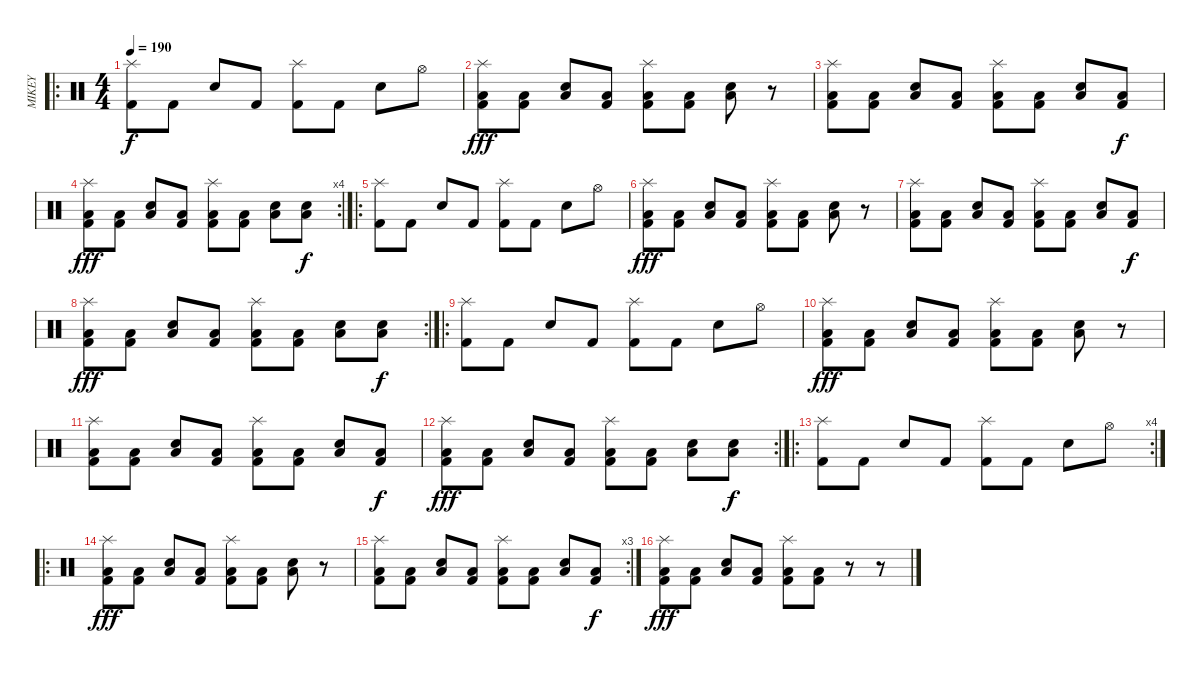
\track ("MIKEY" "MIKEY") {instrument percussion}
\staff {score}
\articulation defaults
\ro
\ts (4 4)
\tempo 190
\clef neutral
\ks c
("Splash (hit)" "Kick (hit) 2").8{dy f} "Kick (hit) 2".8 "Snare (hit) 2".8 "Kick (hit) 2".8 ("Splash (hit)" "Kick (hit) 2").8 "Kick (hit) 2".8 "Snare (hit) 2".8 "Hi-Hat (open)".8 |
("Low Floor Tom (hit)" "Splash (hit)" "Kick (hit) 2").8{dy fff} ("Low Floor Tom (hit)" "Kick (hit) 2").8 ("Low Floor Tom (hit)" "Snare (hit) 2").8 ("Low Floor Tom (hit)" "Kick (hit) 2").8 ("Low Floor Tom (hit)" "Splash (hit)" "Kick (hit) 2").8 ("Low Floor Tom (hit)" "Kick (hit) 2").8 ("Low Floor Tom (hit)" "Snare (hit) 2").8 r.8 |
("Low Floor Tom (hit)" "Splash (hit)" "Kick (hit) 2").8 ("Low Floor Tom (hit)" "Kick (hit) 2").8 ("Low Floor Tom (hit)" "Snare (hit) 2").8 ("Low Floor Tom (hit)" "Kick (hit) 2").8 ("Low Floor Tom (hit)" "Splash (hit)" "Kick (hit) 2").8 ("Low Floor Tom (hit)" "Kick (hit) 2").8 ("Low Floor Tom (hit)" "Snare (hit) 2").8 ("Low Floor Tom (hit)" "Kick (hit) 2").8{dy f} |
\rc 4
("Low Floor Tom (hit)" "Splash (hit)" "Kick (hit) 2").8{dy fff} ("Low Floor Tom (hit)" "Kick (hit) 2").8 ("Low Floor Tom (hit)" "Snare (hit) 2").8 ("Low Floor Tom (hit)" "Kick (hit) 2").8 ("Low Floor Tom (hit)" "Splash (hit)" "Kick (hit) 2").8 ("Low Floor Tom (hit)" "Kick (hit) 2").8 ("Low Floor Tom (hit)" "Snare (hit) 2").8 ("Low Floor Tom (hit)" "Snare (hit) 2").8{dy f} |
\ro
("Splash (hit)" "Kick (hit) 2").8 "Kick (hit) 2".8 "Snare (hit) 2".8 "Kick (hit) 2".8 ("Splash (hit)" "Kick (hit) 2").8 "Kick (hit) 2".8 "Snare (hit) 2".8 "Hi-Hat (open)".8 |
("Low Floor Tom (hit)" "Splash (hit)" "Kick (hit) 2").8{dy fff} ("Low Floor Tom (hit)" "Kick (hit) 2").8 ("Low Floor Tom (hit)" "Snare (hit) 2").8 ("Low Floor Tom (hit)" "Kick (hit) 2").8 ("Low Floor Tom (hit)" "Splash (hit)" "Kick (hit) 2").8 ("Low Floor Tom (hit)" "Kick (hit) 2").8 ("Low Floor Tom (hit)" "Snare (hit) 2").8 r.8 |
("Low Floor Tom (hit)" "Splash (hit)" "Kick (hit) 2").8 ("Low Floor Tom (hit)" "Kick (hit) 2").8 ("Low Floor Tom (hit)" "Snare (hit) 2").8 ("Low Floor Tom (hit)" "Kick (hit) 2").8 ("Low Floor Tom (hit)" "Splash (hit)" "Kick (hit) 2").8 ("Low Floor Tom (hit)" "Kick (hit) 2").8 ("Low Floor Tom (hit)" "Snare (hit) 2").8 ("Low Floor Tom (hit)" "Kick (hit) 2").8{dy f} |
\rc 2
("Low Floor Tom (hit)" "Splash (hit)" "Kick (hit) 2").8{dy fff} ("Low Floor Tom (hit)" "Kick (hit) 2").8 ("Low Floor Tom (hit)" "Snare (hit) 2").8 ("Low Floor Tom (hit)" "Kick (hit) 2").8 ("Low Floor Tom (hit)" "Splash (hit)" "Kick (hit) 2").8 ("Low Floor Tom (hit)" "Kick (hit) 2").8 ("Low Floor Tom (hit)" "Snare (hit) 2").8 ("Low Floor Tom (hit)" "Snare (hit) 2").8{dy f} |
\ro
("Splash (hit)" "Kick (hit) 2").8 "Kick (hit) 2".8 "Snare (hit) 2".8 "Kick (hit) 2".8 ("Splash (hit)" "Kick (hit) 2").8 "Kick (hit) 2".8 "Snare (hit) 2".8 "Hi-Hat (open)".8 |
("Low Floor Tom (hit)" "Splash (hit)" "Kick (hit) 2").8{dy fff} ("Low Floor Tom (hit)" "Kick (hit) 2").8 ("Low Floor Tom (hit)" "Snare (hit) 2").8 ("Low Floor Tom (hit)" "Kick (hit) 2").8 ("Low Floor Tom (hit)" "Splash (hit)" "Kick (hit) 2").8 ("Low Floor Tom (hit)" "Kick (hit) 2").8 ("Low Floor Tom (hit)" "Snare (hit) 2").8 r.8 |
("Low Floor Tom (hit)" "Splash (hit)" "Kick (hit) 2").8 ("Low Floor Tom (hit)" "Kick (hit) 2").8 ("Low Floor Tom (hit)" "Snare (hit) 2").8 ("Low Floor Tom (hit)" "Kick (hit) 2").8 ("Low Floor Tom (hit)" "Splash (hit)" "Kick (hit) 2").8 ("Low Floor Tom (hit)" "Kick (hit) 2").8 ("Low Floor Tom (hit)" "Snare (hit) 2").8 ("Low Floor Tom (hit)" "Kick (hit) 2").8{dy f} |
\rc 2
("Low Floor Tom (hit)" "Splash (hit)" "Kick (hit) 2").8{dy fff} ("Low Floor Tom (hit)" "Kick (hit) 2").8 ("Low Floor Tom (hit)" "Snare (hit) 2").8 ("Low Floor Tom (hit)" "Kick (hit) 2").8 ("Low Floor Tom (hit)" "Splash (hit)" "Kick (hit) 2").8 ("Low Floor Tom (hit)" "Kick (hit) 2").8 ("Low Floor Tom (hit)" "Snare (hit) 2").8 ("Low Floor Tom (hit)" "Snare (hit) 2").8{dy f} |
\ro
\rc 4
("Splash (hit)" "Kick (hit) 2").8 "Kick (hit) 2".8 "Snare (hit) 2".8 "Kick (hit) 2".8 ("Splash (hit)" "Kick (hit) 2").8 "Kick (hit) 2".8 "Snare (hit) 2".8 "Hi-Hat (open)".8 |
\ro
("Low Floor Tom (hit)" "Splash (hit)" "Kick (hit) 2").8{dy fff} ("Low Floor Tom (hit)" "Kick (hit) 2").8 ("Low Floor Tom (hit)" "Snare (hit) 2").8 ("Low Floor Tom (hit)" "Kick (hit) 2").8 ("Low Floor Tom (hit)" "Splash (hit)" "Kick (hit) 2").8 ("Low Floor Tom (hit)" "Kick (hit) 2").8 ("Low Floor Tom (hit)" "Snare (hit) 2").8 r.8 |
\rc 3
("Low Floor Tom (hit)" "Splash (hit)" "Kick (hit) 2").8 ("Low Floor Tom (hit)" "Kick (hit) 2").8 ("Low Floor Tom (hit)" "Snare (hit) 2").8 ("Low Floor Tom (hit)" "Kick (hit) 2").8 ("Low Floor Tom (hit)" "Splash (hit)" "Kick (hit) 2").8 ("Low Floor Tom (hit)" "Kick (hit) 2").8 ("Low Floor Tom (hit)" "Snare (hit) 2").8 ("Low Floor Tom (hit)" "Kick (hit) 2").8{dy f} |
("Low Floor Tom (hit)" "Splash (hit)" "Kick (hit) 2").8{dy fff} ("Low Floor Tom (hit)" "Kick (hit) 2").8 ("Low Floor Tom (hit)" "Snare (hit) 2").8 ("Low Floor Tom (hit)" "Kick (hit) 2").8 ("Low Floor Tom (hit)" "Splash (hit)" "Kick (hit) 2").8 ("Low Floor Tom (hit)" "Kick (hit) 2").8 r.8 r.8
